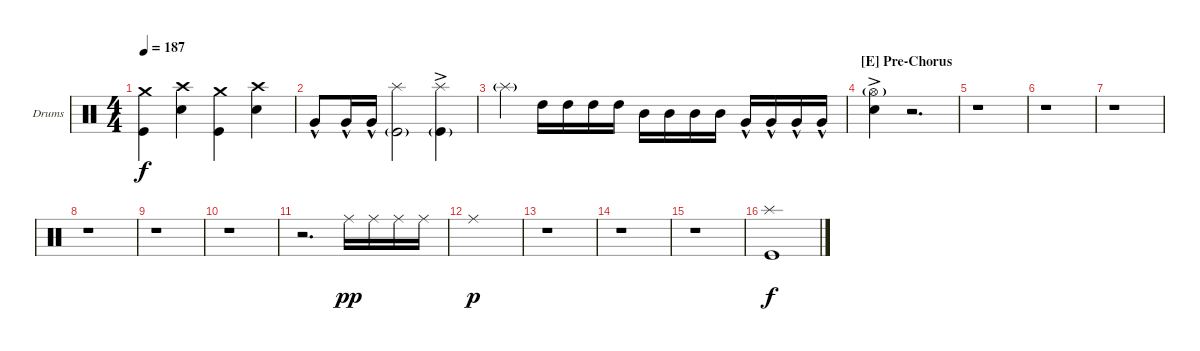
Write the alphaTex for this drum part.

\defaultSystemsLayout 4
\bracketExtendMode groupsimilarinstruments
\firstSystemTrackNameOrientation horizontal
\otherSystemsTrackNameOrientation horizontal
\track ("Drumkit" "Drums") {instrument percussion}
\staff {score}
\articulation defaults
\ts (4 4)
\tempo 187
\clef neutral
\scale
0.333333
\ks c
("Kick (hit)" "Crash medium (hit)").4{dy f} ("Snare (hit) 2" "Crash high (hit)").4 ("Kick (hit)" "Crash medium (hit)").4 ("Snare (hit) 2" "Crash high (hit)").4 |
"Very Low Tom (hit)"{hac}.8 "Very Low Tom (hit)"{hac}.16 "Very Low Tom (hit)"{hac}.16 ("Splash (hit)" "Kick (hit)"{g}).2 ("Splash (hit)"{ac} "Kick (hit)"{g}).4 |
"Splash (hit)"{g}.4 "High Tom (hit)".16 "High Tom (hit)".16 "High Tom (hit)".16 "High Tom (hit)".16 "Mid Tom (hit)".16 "Mid Tom (hit)".16 "Mid Tom (hit)".16 "Mid Tom (hit)".16 "Very Low Tom (hit)"{hac}.16 "Very Low Tom (hit)"{hac}.16 "Very Low Tom (hit)"{hac}.16 "Very Low Tom (hit)"{hac}.16 |
\section ("E" "Pre-Chorus")
("Snare (hit) 2"{ac} "Hi-Hat (open)"{g}).4 r.2{d} |
r.1 |
r.1 |
r.1 |
r.1 |
r.1 |
r.1 |
r.2{d} "Ride (middle)".16{dy pp} "Ride (middle)".16 "Ride (middle)".16 "Ride (middle)".16 |
"Ride (middle)".1{dy p} |
r.1 |
r.1 |
r.1 |
("Kick (hit)" "Splash (hit)").1{dy f}
